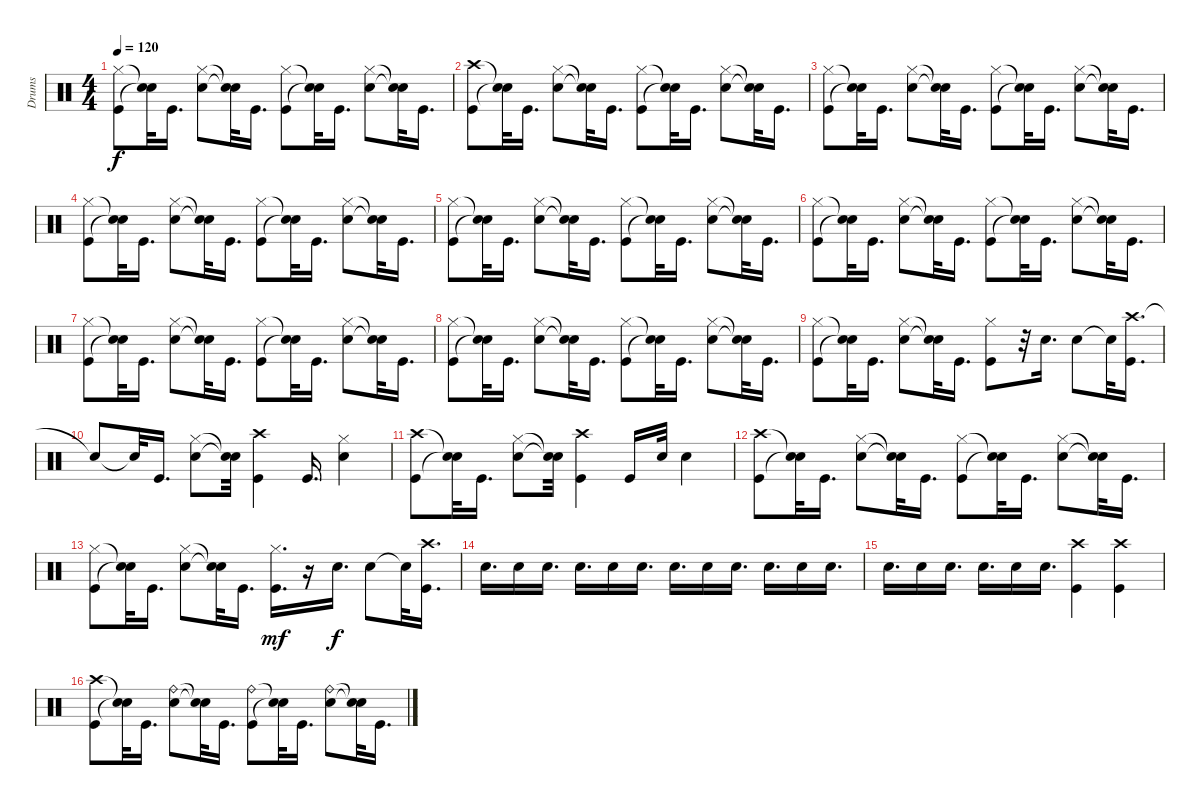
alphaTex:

\track ("Drums" "Drums") {instrument percussion}
\staff {score}
\articulation defaults
\ts (4 4)
\tempo 120
\clef neutral
\ks c
("Hi-Hat (closed)" "Kick (hit)").8{dy f} ("Snare (hit)"{t} "Snare (hit)"{t}).32 "Kick (hit)".16{d} ("Hi-Hat (closed)" "Snare (hit) 2").8 ("Snare (hit)"{t} "Snare (hit)"{t}).32 "Kick (hit)".16{d} ("Hi-Hat (closed)" "Kick (hit)").8 ("Snare (hit)"{t} "Snare (hit)"{t}).32 "Kick (hit)".16{d} ("Hi-Hat (closed)" "Snare (hit) 2").8 ("Snare (hit)"{t} "Snare (hit)"{t}).32 "Kick (hit)".16{d} |
("Crash high (hit)" "Kick (hit)").8 ("Snare (hit)"{t} "Snare (hit)"{t}).32 "Kick (hit)".16{d} ("Hi-Hat (closed)" "Snare (hit) 2").8 ("Snare (hit)"{t} "Snare (hit)"{t}).32 "Kick (hit)".16{d} ("Hi-Hat (closed)" "Kick (hit)").8 ("Snare (hit)"{t} "Snare (hit)"{t}).32 "Kick (hit)".16{d} ("Snare (hit) 2" "Hi-Hat (closed)").8 ("Snare (hit)"{t} "Snare (hit)"{t}).32 "Kick (hit)".16{d} |
("Hi-Hat (closed)" "Kick (hit)").8 ("Snare (hit)"{t} "Snare (hit)"{t}).32 "Kick (hit)".16{d} ("Hi-Hat (closed)" "Snare (hit) 2").8 ("Snare (hit)"{t} "Snare (hit)"{t}).32 "Kick (hit)".16{d} ("Hi-Hat (closed)" "Kick (hit)").8 ("Snare (hit)"{t} "Snare (hit)"{t}).32 "Kick (hit)".16{d} ("Hi-Hat (closed)" "Snare (hit) 2").8 ("Snare (hit)"{t} "Snare (hit)"{t}).32 "Kick (hit)".16{d} |
("Hi-Hat (closed)" "Kick (hit)").8 ("Snare (hit)"{t} "Snare (hit)"{t}).32 "Kick (hit)".16{d} ("Snare (hit) 2" "Hi-Hat (closed)").8 ("Snare (hit)"{t} "Snare (hit)"{t}).32 "Kick (hit)".16{d} ("Hi-Hat (closed)" "Kick (hit)").8 ("Snare (hit)"{t} "Snare (hit)"{t}).32 "Kick (hit)".16{d} ("Hi-Hat (closed)" "Snare (hit) 2").8 ("Snare (hit)"{t} "Snare (hit)"{t}).32 "Kick (hit)".16{d} |
("Hi-Hat (closed)" "Kick (hit)").8 ("Snare (hit)"{t} "Snare (hit)"{t}).32 "Kick (hit)".16{d} ("Snare (hit) 2" "Hi-Hat (closed)").8 ("Snare (hit)"{t} "Snare (hit)"{t}).32 "Kick (hit)".16{d} ("Kick (hit)" "Hi-Hat (closed)").8 ("Snare (hit)"{t} "Snare (hit)"{t}).32 "Kick (hit)".16{d} ("Hi-Hat (closed)" "Snare (hit) 2").8 ("Snare (hit)"{t} "Snare (hit)"{t}).32 "Kick (hit)".16{d} |
("Hi-Hat (closed)" "Kick (hit)").8 ("Snare (hit)"{t} "Snare (hit)"{t}).32 "Kick (hit)".16{d} ("Snare (hit) 2" "Hi-Hat (closed)").8 ("Snare (hit)"{t} "Snare (hit)"{t}).32 "Kick (hit)".16{d} ("Hi-Hat (closed)" "Kick (hit)").8 ("Snare (hit)"{t} "Snare (hit)"{t}).32 "Kick (hit)".16{d} ("Hi-Hat (closed)" "Snare (hit) 2").8 ("Snare (hit)"{t} "Snare (hit)"{t}).32 "Kick (hit)".16{d} |
("Hi-Hat (closed)" "Kick (hit)").8 ("Snare (hit)"{t} "Snare (hit)"{t}).32 "Kick (hit)".16{d} ("Hi-Hat (closed)" "Snare (hit) 2").8 ("Snare (hit)"{t} "Snare (hit)"{t}).32 "Kick (hit)".16{d} ("Kick (hit)" "Hi-Hat (closed)").8 ("Snare (hit)"{t} "Snare (hit)"{t}).32 "Kick (hit)".16{d} ("Snare (hit) 2" "Hi-Hat (closed)").8 ("Snare (hit)"{t} "Snare (hit)"{t}).32 "Kick (hit)".16{d} |
("Hi-Hat (closed)" "Kick (hit)").8 ("Snare (hit)"{t} "Snare (hit)"{t}).32 "Kick (hit)".16{d} ("Hi-Hat (closed)" "Snare (hit) 2").8 ("Snare (hit)"{t} "Snare (hit)"{t}).32 "Kick (hit)".16{d} ("Hi-Hat (closed)" "Kick (hit)").8 ("Snare (hit)"{t} "Snare (hit)"{t}).32 "Kick (hit)".16{d} ("Snare (hit) 2" "Hi-Hat (closed)").8 ("Snare (hit)"{t} "Snare (hit)"{t}).32 "Kick (hit)".16{d} |
("Kick (hit)" "Hi-Hat (closed)").8 ("Snare (hit)"{t} "Snare (hit)"{t}).32 "Kick (hit)".16{d} ("Snare (hit) 2" "Hi-Hat (closed)").8 ("Snare (hit)"{t} "Snare (hit)"{t}).32 "Kick (hit)".16{d} ("Hi-Hat (closed)" "Kick (hit)").8 r.32 "Snare (hit) 2".16{d} "Snare (hit) 2".8 "Snare (hit)"{t}.32 ("Crash high (hit)" "Kick (hit)").16{d} |
"Snare (hit)"{t}.8 "Snare (hit)"{t}.32 "Kick (hit)".16{d} ("Snare (hit) 2" "Hi-Hat (closed)").8 ("Snare (hit)"{t} "Snare (hit)"{t}).32 ("Kick (hit)" "Crash high (hit)").4 "Kick (hit)".16{d} ("Hi-Hat (closed)" "Snare (hit) 2").4 |
("Kick (hit)" "Crash high (hit)").8 ("Snare (hit)"{t} "Snare (hit)"{t}).32 "Kick (hit)".16{d} ("Snare (hit) 2" "Hi-Hat (closed)").8 ("Snare (hit)"{t} "Snare (hit)"{t}).32 ("Crash high (hit)" "Kick (hit)").4 "Kick (hit)".16 "Snare (hit) 2".32 "Snare (hit) 2".4 |
("Crash high (hit)" "Kick (hit)").8 ("Snare (hit)"{t} "Snare (hit)"{t}).32 "Kick (hit)".16{d} ("Hi-Hat (closed)" "Snare (hit) 2").8 ("Snare (hit)"{t} "Snare (hit)"{t}).32 "Kick (hit)".16{d} ("Kick (hit)" "Hi-Hat (closed)").8 ("Snare (hit)"{t} "Snare (hit)"{t}).32 "Kick (hit)".16{d} ("Hi-Hat (closed)" "Snare (hit) 2").8 ("Snare (hit)"{t} "Snare (hit)"{t}).32 "Kick (hit)".16{d} |
("Kick (hit)" "Hi-Hat (closed)").8 ("Snare (hit)"{t} "Snare (hit)"{t}).32 "Kick (hit)".16{d} ("Snare (hit) 2" "Hi-Hat (closed)").8 ("Snare (hit)"{t} "Snare (hit)"{t}).32 "Kick (hit)".16{d} ("Kick (hit)" "Hi-Hat (closed)").16{d dy mf} r.16 "Snare (hit) 2".16{d dy f} "Snare (hit) 2".8 "Snare (hit)"{t}.32 ("Kick (hit)" "Crash high (hit)").16{d} |
"Snare (hit) 2".16{d} "Snare (hit) 2".16 "Snare (hit) 2".16{d} "Snare (hit) 2".16{d} "Snare (hit) 2".16 "Snare (hit) 2".16{d} "Snare (hit) 2".16{d} "Snare (hit) 2".16 "Snare (hit) 2".16{d} "Snare (hit) 2".16{d} "Snare (hit) 2".16 "Snare (hit) 2".16{d} |
"Snare (hit) 2".16{d} "Snare (hit) 2".16 "Snare (hit) 2".16{d} "Snare (hit) 2".16{d} "Snare (hit) 2".16 "Snare (hit) 2".16{d} ("Crash high (hit)" "Kick (hit)").4 ("Crash high (hit)" "Kick (hit)").4 |
("Kick (hit)" "Crash high (hit)").8 ("Snare (hit)"{t} "Snare (hit)"{t}).32 "Kick (hit)".16{d} ("Snare (hit) 2" "Ride (bell)").8 ("Snare (hit)"{t} "Snare (hit)"{t}).32 "Kick (hit)".16{d} ("Ride (bell)" "Kick (hit)").8 ("Snare (hit)"{t} "Snare (hit)"{t}).32 "Kick (hit)".16{d} ("Snare (hit) 2" "Ride (bell)").8 ("Snare (hit)"{t} "Snare (hit)"{t}).32 "Kick (hit)".16{d}
